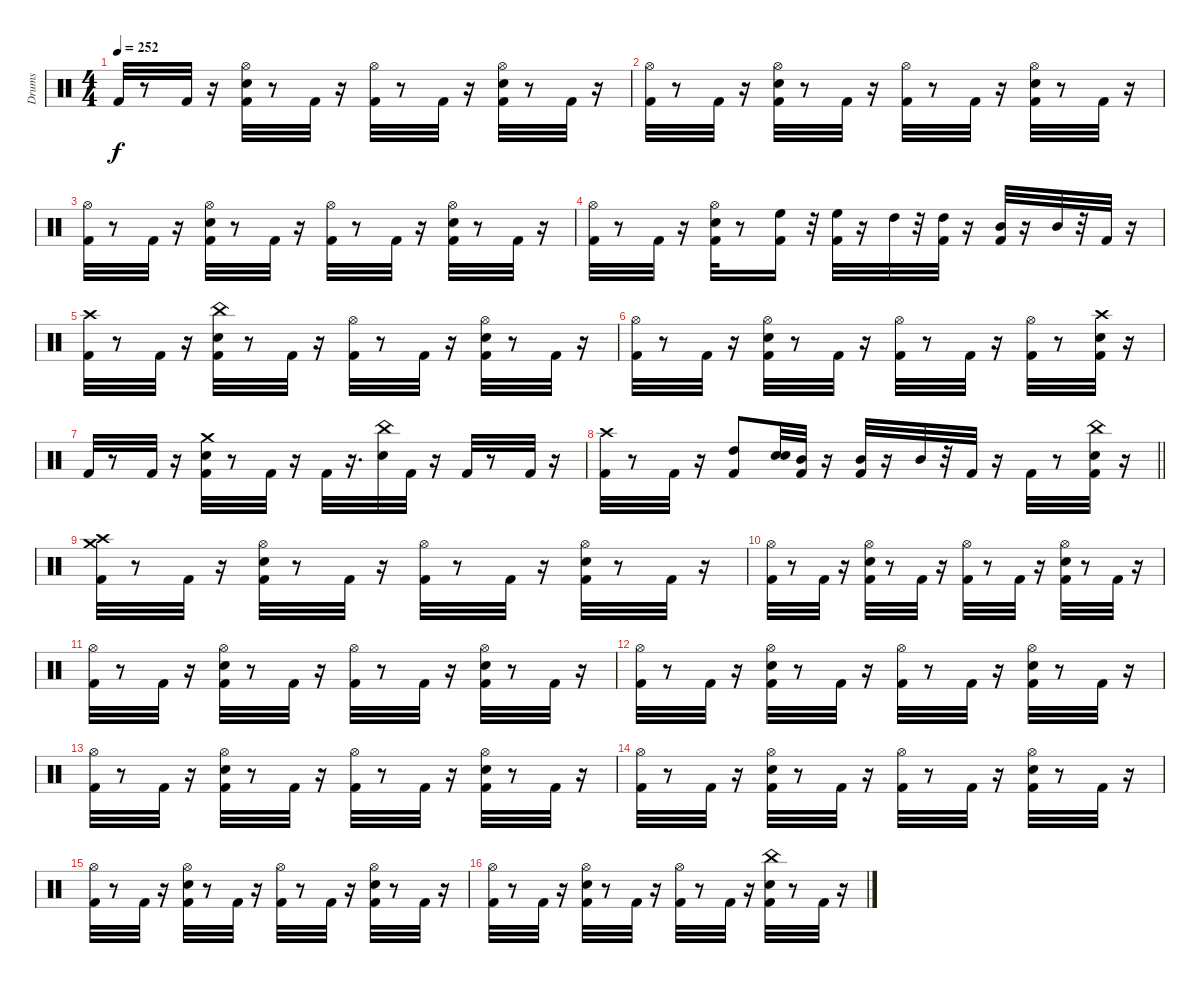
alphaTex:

\track ("Drums" "Drums") {instrument percussion}
\staff {score}
\articulation defaults
\ts (4 4)
\tempo 252
\clef neutral
\ks c "Kick (hit) 2".32{dy f}
r.8 "Kick (hit) 2".32 r.16 ("Snare (hit) 2" "Kick (hit) 2" "Hi-Hat (open)").32 r.8 "Kick (hit) 2".32 r.16 ("Hi-Hat (open)" "Kick (hit) 2").32 r.8 "Kick (hit) 2".32 r.16 ("Hi-Hat (open)" "Snare (hit) 2" "Kick (hit) 2").32 r.8 "Kick (hit) 2".32 r.16 |
("Kick (hit) 2" "Hi-Hat (open)").32 r.8 "Kick (hit) 2".32 r.16 ("Snare (hit) 2" "Kick (hit) 2" "Hi-Hat (open)").32 r.8 "Kick (hit) 2".32 r.16 ("Hi-Hat (open)" "Kick (hit) 2").32 r.8 "Kick (hit) 2".32 r.16 ("Kick (hit) 2" "Snare (hit) 2" "Hi-Hat (open)").32 r.8 "Kick (hit) 2".32 r.16 |
("Kick (hit) 2" "Hi-Hat (open)").32 r.8 "Kick (hit) 2".32 r.16 ("Kick (hit) 2" "Snare (hit) 2" "Hi-Hat (open)").32 r.8 "Kick (hit) 2".32 r.16 ("Hi-Hat (open)" "Kick (hit) 2").32 r.8 "Kick (hit) 2".32 r.16 ("Snare (hit) 2" "Hi-Hat (open)" "Kick (hit) 2").32 r.8 "Kick (hit) 2".32 r.16 |
("Hi-Hat (open)" "Kick (hit) 2").32 r.8 "Kick (hit) 2".32 r.16 ("Kick (hit) 2" "Hi-Hat (open)" "Snare (hit) 2").32 r.8 ("Kick (hit) 2" "High Floor Tom (hit)").16 r.32 ("Kick (hit) 2" "High Floor Tom (hit)").32 r.16 "High Tom (hit)".32 r.32 ("Kick (hit) 2" "High Tom (hit)").32 r.16 ("Kick (hit) 2" "Mid Tom (hit)").32 r.16 "Mid Tom (hit)".32 r.32 "Kick (hit) 2".32 r.16 |
("Crash high (hit)" "Kick (hit) 2").32 r.8 "Kick (hit) 2".32 r.16 ("Snare (hit) 2" "Kick (hit) 2" "China (hit)").32 r.8 "Kick (hit) 2".32 r.16 ("Kick (hit) 2" "Hi-Hat (open)").32 r.8 "Kick (hit) 2".32 r.16 ("Hi-Hat (open)" "Snare (hit) 2" "Kick (hit) 2").32 r.8 "Kick (hit) 2".32 r.16 |
("Kick (hit) 2" "Hi-Hat (open)").32 r.8 "Kick (hit) 2".32 r.16 ("Kick (hit) 2" "Snare (hit) 2" "Hi-Hat (open)").32 r.8 "Kick (hit) 2".32 r.16 ("Hi-Hat (open)" "Kick (hit) 2").32 r.8 "Kick (hit) 2".32 r.16 ("Kick (hit) 2" "Hi-Hat (open)").32 r.8 ("Kick (hit) 2" "Crash high (hit)" "Snare (hit) 2").32 r.16 |
"Kick (hit) 2".32 r.8 "Kick (hit) 2".32 r.16 ("Snare (hit) 2" "Kick (hit) 2" "Crash medium (hit)").32 r.8 "Kick (hit) 2".32 r.16 "Kick (hit) 2".32 r.16{d} ("China (hit)" "Snare (hit) 2").32 "Kick (hit) 2".32 r.16 "Kick (hit) 2".32 r.8 "Kick (hit) 2".32 r.16 |
\barLineRight lightlight
("Crash high (hit)" "Kick (hit) 2").32 r.8 "Kick (hit) 2".32 r.16 ("Kick (hit) 2" "High Tom (hit)").8 ("Snare (hit)" "Snare (hit)").32 ("Kick (hit) 2" "Mid Tom (hit)").32 r.16 ("Mid Tom (hit)" "Kick (hit) 2").32 r.16 "Mid Tom (hit)".32 r.32 "Kick (hit) 2".32 r.16 "Kick (hit) 2".32 r.8 ("China (hit)" "Snare (hit) 2" "Kick (hit) 2").32 r.16 |
("Kick (hit) 2" "Crash high (hit)" "Crash medium (hit)").32 r.8 "Kick (hit) 2".32 r.16 ("Hi-Hat (open)" "Kick (hit) 2" "Snare (hit) 2").32 r.8 "Kick (hit) 2".32 r.16 ("Kick (hit) 2" "Hi-Hat (open)").32 r.8 "Kick (hit) 2".32 r.16 ("Snare (hit) 2" "Hi-Hat (open)" "Kick (hit) 2").32 r.8 "Kick (hit) 2".32 r.16 |
("Kick (hit) 2" "Hi-Hat (open)").32 r.8 "Kick (hit) 2".32 r.16 ("Hi-Hat (open)" "Snare (hit) 2" "Kick (hit) 2").32 r.8 "Kick (hit) 2".32 r.16 ("Hi-Hat (open)" "Kick (hit) 2").32 r.8 "Kick (hit) 2".32 r.16 ("Snare (hit) 2" "Kick (hit) 2" "Hi-Hat (open)").32 r.8 "Kick (hit) 2".32 r.16 |
("Hi-Hat (open)" "Kick (hit) 2").32 r.8 "Kick (hit) 2".32 r.16 ("Kick (hit) 2" "Hi-Hat (open)" "Snare (hit) 2").32 r.8 "Kick (hit) 2".32 r.16 ("Kick (hit) 2" "Hi-Hat (open)").32 r.8 "Kick (hit) 2".32 r.16 ("Kick (hit) 2" "Snare (hit) 2" "Hi-Hat (open)").32 r.8 "Kick (hit) 2".32 r.16 |
("Hi-Hat (open)" "Kick (hit) 2").32 r.8 "Kick (hit) 2".32 r.16 ("Snare (hit) 2" "Kick (hit) 2" "Hi-Hat (open)").32 r.8 "Kick (hit) 2".32 r.16 ("Hi-Hat (open)" "Kick (hit) 2").32 r.8 "Kick (hit) 2".32 r.16 ("Kick (hit) 2" "Snare (hit) 2" "Hi-Hat (open)").32 r.8 "Kick (hit) 2".32 r.16 |
("Kick (hit) 2" "Hi-Hat (open)").32 r.8 "Kick (hit) 2".32 r.16 ("Kick (hit) 2" "Snare (hit) 2" "Hi-Hat (open)").32 r.8 "Kick (hit) 2".32 r.16 ("Kick (hit) 2" "Hi-Hat (open)").32 r.8 "Kick (hit) 2".32 r.16 ("Snare (hit) 2" "Hi-Hat (open)" "Kick (hit) 2").32 r.8 "Kick (hit) 2".32 r.16 |
("Kick (hit) 2" "Hi-Hat (open)").32 r.8 "Kick (hit) 2".32 r.16 ("Snare (hit) 2" "Hi-Hat (open)" "Kick (hit) 2").32 r.8 "Kick (hit) 2".32 r.16 ("Hi-Hat (open)" "Kick (hit) 2").32 r.8 "Kick (hit) 2".32 r.16 ("Hi-Hat (open)" "Snare (hit) 2" "Kick (hit) 2").32 r.8 "Kick (hit) 2".32 r.16 |
("Kick (hit) 2" "Hi-Hat (open)").32 r.8 "Kick (hit) 2".32 r.16 ("Snare (hit) 2" "Hi-Hat (open)" "Kick (hit) 2").32 r.8 "Kick (hit) 2".32 r.16 ("Hi-Hat (open)" "Kick (hit) 2").32 r.8 "Kick (hit) 2".32 r.16 ("Kick (hit) 2" "Snare (hit) 2" "Hi-Hat (open)").32 r.8 "Kick (hit) 2".32 r.16 |
("Kick (hit) 2" "Hi-Hat (open)").32 r.8 "Kick (hit) 2".32 r.16 ("Hi-Hat (open)" "Kick (hit) 2" "Snare (hit) 2").32 r.8 "Kick (hit) 2".32 r.16 ("Hi-Hat (open)" "Kick (hit) 2").32 r.8 "Kick (hit) 2".32 r.16 ("China (hit)" "Kick (hit) 2" "Snare (hit) 2").32 r.8 "Kick (hit) 2".32 r.16
